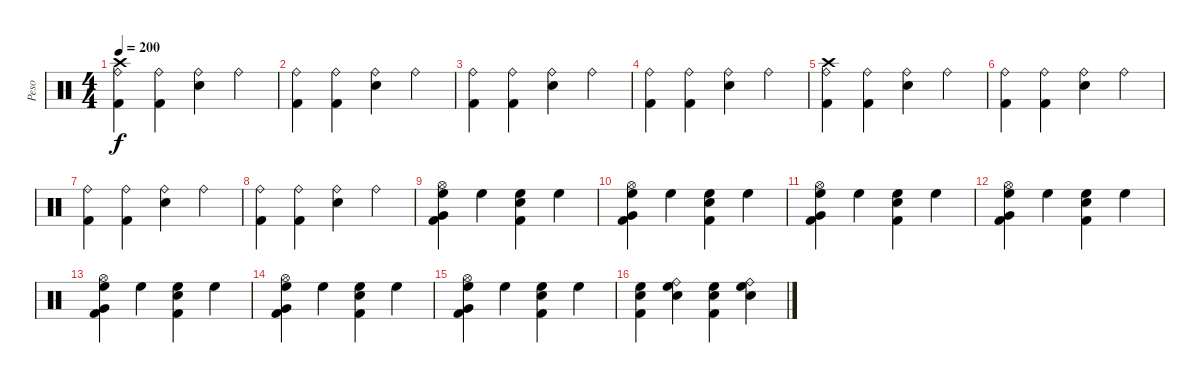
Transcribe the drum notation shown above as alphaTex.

\track ("Peso" "Peso") {instrument percussion}
\staff {score}
\articulation defaults
\ts (4 4)
\tempo 200
\clef neutral
\ks c
("Crash high (hit)" "Ride (bell)" "Kick (hit) 2").4{dy f} ("Ride (bell)" "Kick (hit) 2").4 ("Ride (bell)" "Snare (hit) 2").4 "Ride (bell)".4 |
("Ride (bell)" "Kick (hit) 2").4 ("Ride (bell)" "Kick (hit) 2").4 ("Ride (bell)" "Snare (hit) 2").4 "Ride (bell)".4 |
("Ride (bell)" "Kick (hit) 2").4 ("Ride (bell)" "Kick (hit) 2").4 ("Ride (bell)" "Snare (hit) 2").4 "Ride (bell)".4 |
("Ride (bell)" "Kick (hit) 2").4 ("Ride (bell)" "Kick (hit) 2").4 ("Ride (bell)" "Snare (hit) 2").4 "Ride (bell)".4 |
("Crash high (hit)" "Ride (bell)" "Kick (hit) 2").4 ("Ride (bell)" "Kick (hit) 2").4 ("Ride (bell)" "Snare (hit) 2").4 "Ride (bell)".4 |
("Ride (bell)" "Kick (hit) 2").4 ("Ride (bell)" "Kick (hit) 2").4 ("Ride (bell)" "Snare (hit) 2").4 "Ride (bell)".4 |
("Ride (bell)" "Kick (hit) 2").4 ("Ride (bell)" "Kick (hit) 2").4 ("Ride (bell)" "Snare (hit) 2").4 "Ride (bell)".4 |
("Ride (bell)" "Kick (hit) 2").4 ("Ride (bell)" "Kick (hit) 2").4 ("Ride (bell)" "Snare (hit) 2").4 "Ride (bell)".4 |
("Hi-Hat (open)" "Very Low Tom (hit)" "High Floor Tom (hit)" "Kick (hit) 2").4 "High Floor Tom (hit)".4 ("Kick (hit) 2" "Snare (hit) 2" "High Floor Tom (hit)").4 "High Floor Tom (hit)".4 |
("Hi-Hat (open)" "Very Low Tom (hit)" "High Floor Tom (hit)" "Kick (hit) 2").4 "High Floor Tom (hit)".4 ("Kick (hit) 2" "Snare (hit) 2" "High Floor Tom (hit)").4 "High Floor Tom (hit)".4 |
("Hi-Hat (open)" "Very Low Tom (hit)" "High Floor Tom (hit)" "Kick (hit) 2").4 "High Floor Tom (hit)".4 ("Kick (hit) 2" "Snare (hit) 2" "High Floor Tom (hit)").4 "High Floor Tom (hit)".4 |
("Hi-Hat (open)" "Very Low Tom (hit)" "High Floor Tom (hit)" "Kick (hit) 2").4 "High Floor Tom (hit)".4 ("Kick (hit) 2" "Snare (hit) 2" "High Floor Tom (hit)").4 "High Floor Tom (hit)".4 |
("Hi-Hat (open)" "Very Low Tom (hit)" "High Floor Tom (hit)" "Kick (hit) 2").4 "High Floor Tom (hit)".4 ("Kick (hit) 2" "Snare (hit) 2" "High Floor Tom (hit)").4 "High Floor Tom (hit)".4 |
("Hi-Hat (open)" "Very Low Tom (hit)" "High Floor Tom (hit)" "Kick (hit) 2").4 "High Floor Tom (hit)".4 ("Kick (hit) 2" "Snare (hit) 2" "High Floor Tom (hit)").4 "High Floor Tom (hit)".4 |
("Hi-Hat (open)" "Very Low Tom (hit)" "High Floor Tom (hit)" "Kick (hit) 2").4 "High Floor Tom (hit)".4 ("Kick (hit) 2" "Snare (hit) 2" "High Floor Tom (hit)").4 "High Floor Tom (hit)".4 |
("Snare (hit) 2" "High Floor Tom (hit)" "Kick (hit) 2").4 ("Ride (bell)" "Snare (hit) 2" "High Floor Tom (hit)").4 ("Kick (hit) 2" "Snare (hit) 2" "High Floor Tom (hit)").4 ("Ride (bell)" "Snare (hit) 2" "High Floor Tom (hit)").4
